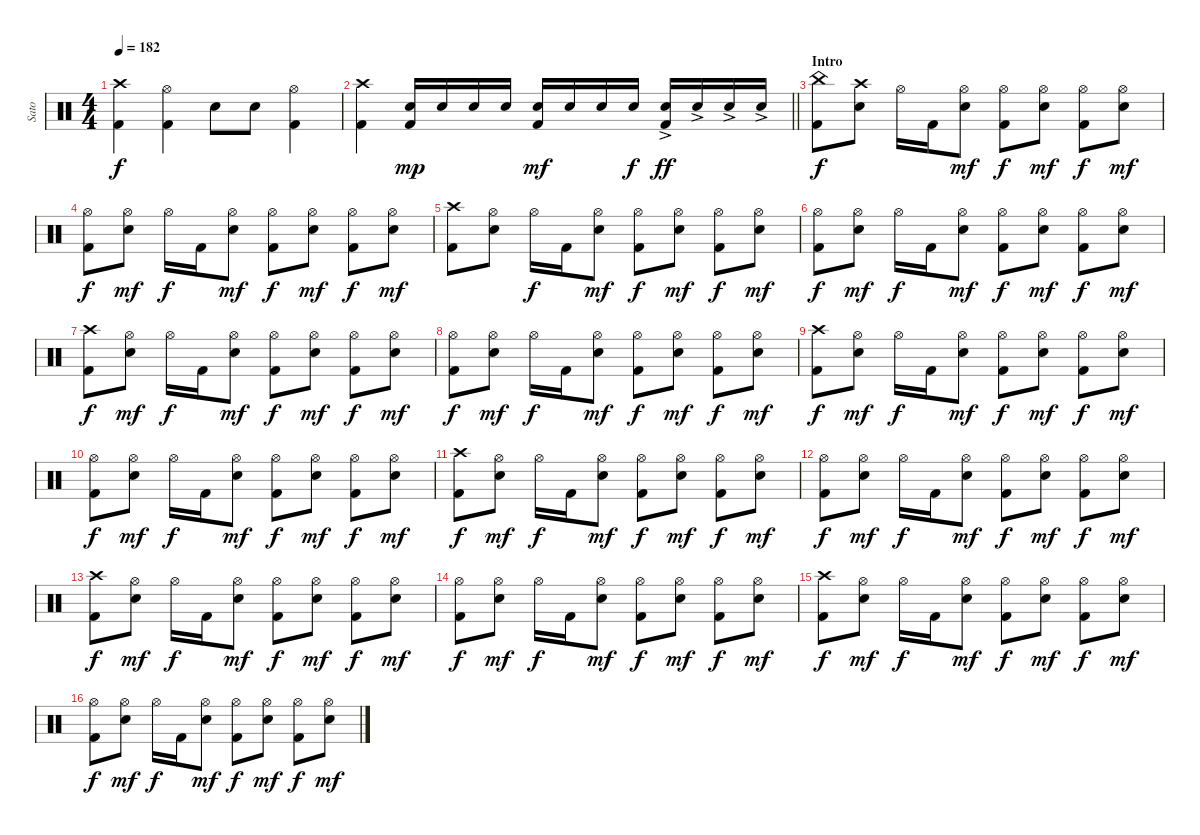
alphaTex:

\track ("Sato" "Sato") {instrument percussion}
\staff {score}
\articulation defaults
\ts (4 4)
\tempo 182
\clef neutral
\ks c
("Crash high (hit)" "Kick (hit) 2").4{dy f} ("Hi-Hat (open)" "Kick (hit) 2").4 "Electric Snare (hit)".8 "Electric Snare (hit)".8 ("Hi-Hat (open)" "Kick (hit) 2").4 |
\barLineRight lightlight
("Crash high (hit)" "Kick (hit) 2").4 ("Electric Snare (hit)" "Kick (hit) 2").16{dy mp} "Electric Snare (hit)".16 "Electric Snare (hit)".16 "Electric Snare (hit)".16 ("Electric Snare (hit)" "Kick (hit) 2").16{dy mf} "Electric Snare (hit)".16 "Electric Snare (hit)".16 "Electric Snare (hit)".16{dy f} ("Electric Snare (hit)"{ac} "Kick (hit) 2").16{dy ff} "Electric Snare (hit)"{ac}.16 "Electric Snare (hit)"{ac}.16 "Electric Snare (hit)"{ac}.16 |
\section ("" "Intro")
("China (hit)" "Kick (hit) 2").8{dy f} ("Crash high (hit)" "Electric Snare (hit)").8 "Hi-Hat (open)".16 "Kick (hit) 2".16 ("Hi-Hat (open)" "Electric Snare (hit)").8{dy mf} ("Hi-Hat (open)" "Kick (hit) 2").8{dy f} ("Hi-Hat (open)" "Electric Snare (hit)").8{dy mf} ("Hi-Hat (open)" "Kick (hit) 2").8{dy f} ("Hi-Hat (open)" "Electric Snare (hit)").8{dy mf} |
("Hi-Hat (open)" "Kick (hit) 2").8{dy f} ("Hi-Hat (open)" "Electric Snare (hit)").8{dy mf} "Hi-Hat (open)".16{dy f} "Kick (hit) 2".16 ("Hi-Hat (open)" "Electric Snare (hit)").8{dy mf} ("Hi-Hat (open)" "Kick (hit) 2").8{dy f} ("Hi-Hat (open)" "Electric Snare (hit)").8{dy mf} ("Hi-Hat (open)" "Kick (hit) 2").8{dy f} ("Hi-Hat (open)" "Electric Snare (hit)").8{dy mf} |
("Crash high (hit)" "Kick (hit) 2").8 ("Hi-Hat (open)" "Electric Snare (hit)").8 "Hi-Hat (open)".16{dy f} "Kick (hit) 2".16 ("Hi-Hat (open)" "Electric Snare (hit)").8{dy mf} ("Hi-Hat (open)" "Kick (hit) 2").8{dy f} ("Hi-Hat (open)" "Electric Snare (hit)").8{dy mf} ("Hi-Hat (open)" "Kick (hit) 2").8{dy f} ("Hi-Hat (open)" "Electric Snare (hit)").8{dy mf} |
("Hi-Hat (open)" "Kick (hit) 2").8{dy f} ("Hi-Hat (open)" "Electric Snare (hit)").8{dy mf} "Hi-Hat (open)".16{dy f} "Kick (hit) 2".16 ("Hi-Hat (open)" "Electric Snare (hit)").8{dy mf} ("Hi-Hat (open)" "Kick (hit) 2").8{dy f} ("Hi-Hat (open)" "Electric Snare (hit)").8{dy mf} ("Hi-Hat (open)" "Kick (hit) 2").8{dy f} ("Hi-Hat (open)" "Electric Snare (hit)").8{dy mf} |
("Crash high (hit)" "Kick (hit) 2").8{dy f} ("Hi-Hat (open)" "Electric Snare (hit)").8{dy mf} "Hi-Hat (open)".16{dy f} "Kick (hit) 2".16 ("Hi-Hat (open)" "Electric Snare (hit)").8{dy mf} ("Hi-Hat (open)" "Kick (hit) 2").8{dy f} ("Hi-Hat (open)" "Electric Snare (hit)").8{dy mf} ("Hi-Hat (open)" "Kick (hit) 2").8{dy f} ("Hi-Hat (open)" "Electric Snare (hit)").8{dy mf} |
("Hi-Hat (open)" "Kick (hit) 2").8{dy f} ("Hi-Hat (open)" "Electric Snare (hit)").8{dy mf} "Hi-Hat (open)".16{dy f} "Kick (hit) 2".16 ("Hi-Hat (open)" "Electric Snare (hit)").8{dy mf} ("Hi-Hat (open)" "Kick (hit) 2").8{dy f} ("Hi-Hat (open)" "Electric Snare (hit)").8{dy mf} ("Hi-Hat (open)" "Kick (hit) 2").8{dy f} ("Hi-Hat (open)" "Electric Snare (hit)").8{dy mf} |
("Crash high (hit)" "Kick (hit) 2").8{dy f} ("Hi-Hat (open)" "Electric Snare (hit)").8{dy mf} "Hi-Hat (open)".16{dy f} "Kick (hit) 2".16 ("Hi-Hat (open)" "Electric Snare (hit)").8{dy mf} ("Hi-Hat (open)" "Kick (hit) 2").8{dy f} ("Hi-Hat (open)" "Electric Snare (hit)").8{dy mf} ("Hi-Hat (open)" "Kick (hit) 2").8{dy f} ("Hi-Hat (open)" "Electric Snare (hit)").8{dy mf} |
("Hi-Hat (open)" "Kick (hit) 2").8{dy f} ("Hi-Hat (open)" "Electric Snare (hit)").8{dy mf} "Hi-Hat (open)".16{dy f} "Kick (hit) 2".16 ("Hi-Hat (open)" "Electric Snare (hit)").8{dy mf} ("Hi-Hat (open)" "Kick (hit) 2").8{dy f} ("Hi-Hat (open)" "Electric Snare (hit)").8{dy mf} ("Hi-Hat (open)" "Kick (hit) 2").8{dy f} ("Hi-Hat (open)" "Electric Snare (hit)").8{dy mf} |
("Crash high (hit)" "Kick (hit) 2").8{dy f} ("Hi-Hat (open)" "Electric Snare (hit)").8{dy mf} "Hi-Hat (open)".16{dy f} "Kick (hit) 2".16 ("Hi-Hat (open)" "Electric Snare (hit)").8{dy mf} ("Hi-Hat (open)" "Kick (hit) 2").8{dy f} ("Hi-Hat (open)" "Electric Snare (hit)").8{dy mf} ("Hi-Hat (open)" "Kick (hit) 2").8{dy f} ("Hi-Hat (open)" "Electric Snare (hit)").8{dy mf} |
("Hi-Hat (open)" "Kick (hit) 2").8{dy f} ("Hi-Hat (open)" "Electric Snare (hit)").8{dy mf} "Hi-Hat (open)".16{dy f} "Kick (hit) 2".16 ("Hi-Hat (open)" "Electric Snare (hit)").8{dy mf} ("Hi-Hat (open)" "Kick (hit) 2").8{dy f} ("Hi-Hat (open)" "Electric Snare (hit)").8{dy mf} ("Hi-Hat (open)" "Kick (hit) 2").8{dy f} ("Hi-Hat (open)" "Electric Snare (hit)").8{dy mf} |
("Crash high (hit)" "Kick (hit) 2").8{dy f} ("Hi-Hat (open)" "Electric Snare (hit)").8{dy mf} "Hi-Hat (open)".16{dy f} "Kick (hit) 2".16 ("Hi-Hat (open)" "Electric Snare (hit)").8{dy mf} ("Hi-Hat (open)" "Kick (hit) 2").8{dy f} ("Hi-Hat (open)" "Electric Snare (hit)").8{dy mf} ("Hi-Hat (open)" "Kick (hit) 2").8{dy f} ("Hi-Hat (open)" "Electric Snare (hit)").8{dy mf} |
("Hi-Hat (open)" "Kick (hit) 2").8{dy f} ("Hi-Hat (open)" "Electric Snare (hit)").8{dy mf} "Hi-Hat (open)".16{dy f} "Kick (hit) 2".16 ("Hi-Hat (open)" "Electric Snare (hit)").8{dy mf} ("Hi-Hat (open)" "Kick (hit) 2").8{dy f} ("Hi-Hat (open)" "Electric Snare (hit)").8{dy mf} ("Hi-Hat (open)" "Kick (hit) 2").8{dy f} ("Hi-Hat (open)" "Electric Snare (hit)").8{dy mf} |
("Crash high (hit)" "Kick (hit) 2").8{dy f} ("Hi-Hat (open)" "Electric Snare (hit)").8{dy mf} "Hi-Hat (open)".16{dy f} "Kick (hit) 2".16 ("Hi-Hat (open)" "Electric Snare (hit)").8{dy mf} ("Hi-Hat (open)" "Kick (hit) 2").8{dy f} ("Hi-Hat (open)" "Electric Snare (hit)").8{dy mf} ("Hi-Hat (open)" "Kick (hit) 2").8{dy f} ("Hi-Hat (open)" "Electric Snare (hit)").8{dy mf} |
("Hi-Hat (open)" "Kick (hit) 2").8{dy f} ("Hi-Hat (open)" "Electric Snare (hit)").8{dy mf} "Hi-Hat (open)".16{dy f} "Kick (hit) 2".16 ("Hi-Hat (open)" "Electric Snare (hit)").8{dy mf} ("Hi-Hat (open)" "Kick (hit) 2").8{dy f} ("Hi-Hat (open)" "Electric Snare (hit)").8{dy mf} ("Hi-Hat (open)" "Kick (hit) 2").8{dy f} ("Hi-Hat (open)" "Electric Snare (hit)").8{dy mf}
